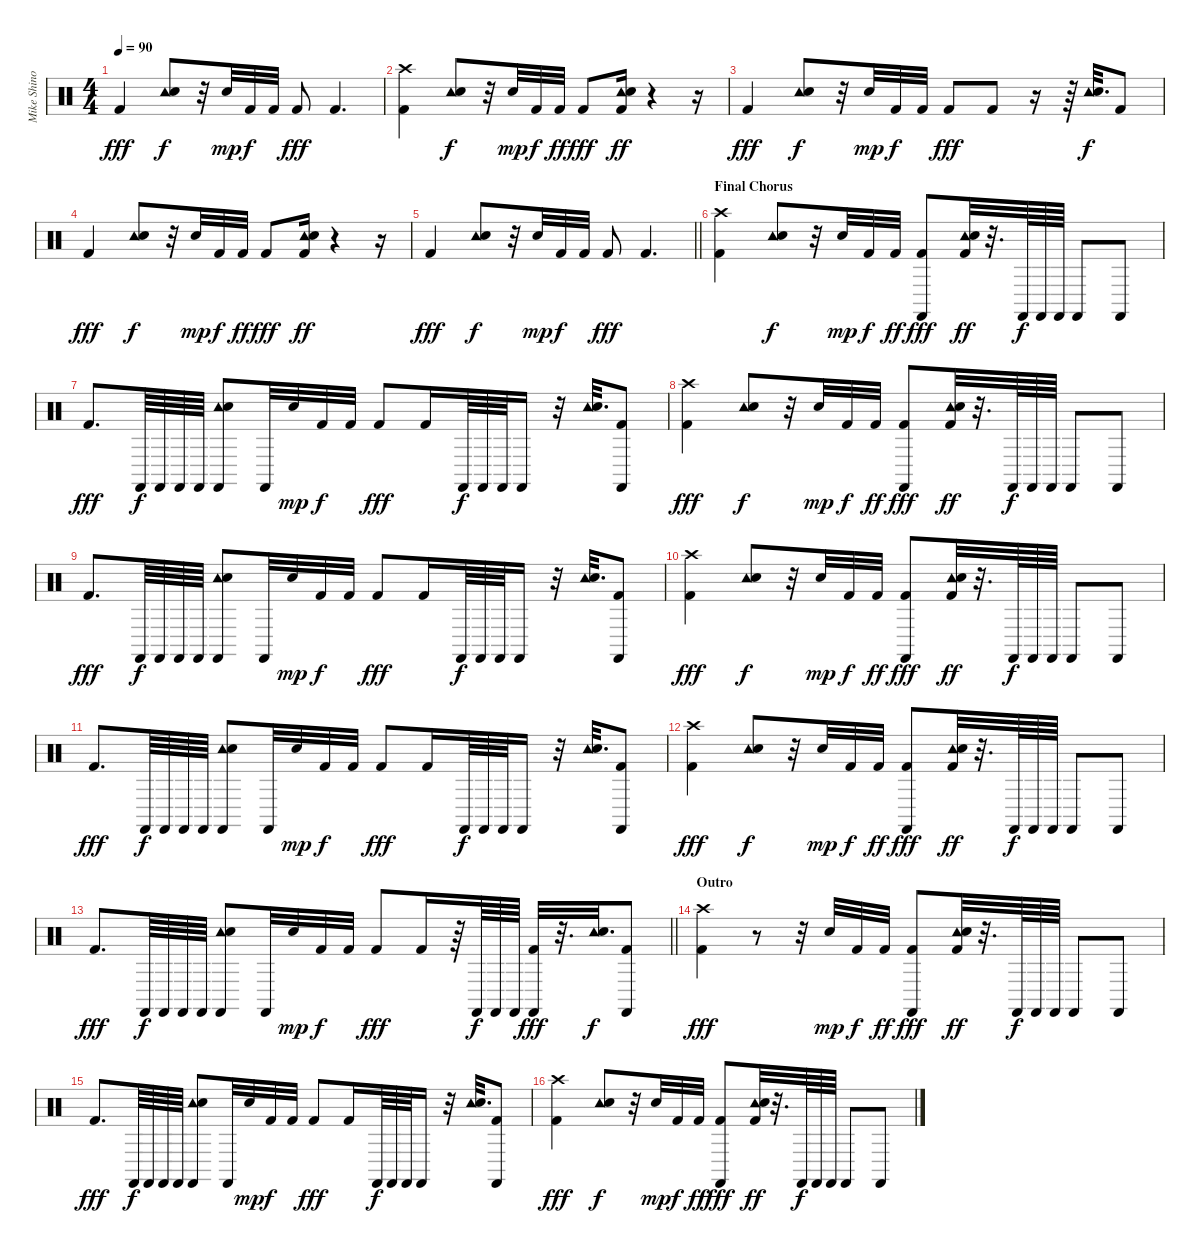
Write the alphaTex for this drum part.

\track ("Mike Shinoda - Percussion" "Mike Shino") {instrument percussion}
\staff {score}
\articulation defaults
\ts (4 4)
\tempo 90
\clef neutral
\ks c "Kick (hit) 2".4{dy fff}
("Tambourine (hit)" "Electric Snare (hit)").8{dy f} r.32 "Snare (hit) 2".32{dy mp} "Kick (hit) 2".32{dy f} "Kick (hit) 2".32 "Kick (hit) 2".8{dy fff} "Kick (hit) 2".4{d} |
("Crash high (hit)" "Kick (hit) 2").4 ("Tambourine (hit)" "Electric Snare (hit)").8{dy f} r.32 "Snare (hit) 2".32{dy mp} "Kick (hit) 2".32{dy f} "Kick (hit) 2".32{dy ff} "Kick (hit) 2".8{dy fff} ("Tambourine (hit)" "Electric Snare (hit)" "Kick (hit) 2").16{dy ff} r.4 r.16 |
"Kick (hit) 2".4{dy fff} ("Tambourine (hit)" "Electric Snare (hit)").8{dy f} r.32 "Snare (hit) 2".32{dy mp} "Kick (hit) 2".32{dy f} "Kick (hit) 2".32 "Kick (hit) 2".8{dy fff} "Kick (hit) 2".8 r.16 r.64 ("Tambourine (hit)" "Electric Snare (hit)").32{d dy f} "Kick (hit) 2".8 |
"Kick (hit) 2".4{dy fff} ("Tambourine (hit)" "Electric Snare (hit)").8{dy f} r.32 "Snare (hit) 2".32{dy mp} "Kick (hit) 2".32{dy f} "Kick (hit) 2".32{dy ff} "Kick (hit) 2".8{dy fff} ("Tambourine (hit)" "Electric Snare (hit)" "Kick (hit) 2").16{dy ff} r.4 r.16 |
\barLineRight lightlight "Kick (hit) 2".4{dy fff}
("Tambourine (hit)" "Electric Snare (hit)").8{dy f} r.32 "Snare (hit) 2".32{dy mp} "Kick (hit) 2".32{dy f} "Kick (hit) 2".32 "Kick (hit) 2".8{dy fff} "Kick (hit) 2".4{d} |
\section ("" "Final Chorus ")
("Crash high (hit)" "Kick (hit) 2").4 ("Tambourine (hit)" "Electric Snare (hit)").8{dy f} r.32 "Snare (hit) 2".32{dy mp} "Kick (hit) 2".32{dy f} "Kick (hit) 2".32{dy ff} ("Castanets (hit)" "Kick (hit) 2").8{dy fff} ("Tambourine (hit)" "Electric Snare (hit)" "Kick (hit) 2").32{dy ff} r.32{d} "Castanets (hit)".64{dy f} "Castanets (hit)".64 "Castanets (hit)".64 "Castanets (hit)".8 "Castanets (hit)".8 |
"Kick (hit) 2".8{d dy fff} "Castanets (hit)".64{dy f} "Castanets (hit)".64 "Castanets (hit)".64 "Castanets (hit)".64 ("Castanets (hit)" "Tambourine (hit)" "Electric Snare (hit)").8 "Castanets (hit)".32 "Snare (hit) 2".32{dy mp} "Kick (hit) 2".32{dy f} "Kick (hit) 2".32 "Kick (hit) 2".8{dy fff} "Kick (hit) 2".16 "Castanets (hit)".64{dy f} "Castanets (hit)".64 "Castanets (hit)".64 "Castanets (hit)".16 r.32 ("Tambourine (hit)" "Electric Snare (hit)").32{d} ("Castanets (hit)" "Kick (hit) 2").8 |
("Crash high (hit)" "Kick (hit) 2").4{dy fff} ("Tambourine (hit)" "Electric Snare (hit)").8{dy f} r.32 "Snare (hit) 2".32{dy mp} "Kick (hit) 2".32{dy f} "Kick (hit) 2".32{dy ff} ("Castanets (hit)" "Kick (hit) 2").8{dy fff} ("Tambourine (hit)" "Electric Snare (hit)" "Kick (hit) 2").32{dy ff} r.32{d} "Castanets (hit)".64{dy f} "Castanets (hit)".64 "Castanets (hit)".64 "Castanets (hit)".8 "Castanets (hit)".8 |
"Kick (hit) 2".8{d dy fff} "Castanets (hit)".64{dy f} "Castanets (hit)".64 "Castanets (hit)".64 "Castanets (hit)".64 ("Castanets (hit)" "Tambourine (hit)" "Electric Snare (hit)").8 "Castanets (hit)".32 "Snare (hit) 2".32{dy mp} "Kick (hit) 2".32{dy f} "Kick (hit) 2".32 "Kick (hit) 2".8{dy fff} "Kick (hit) 2".16 "Castanets (hit)".64{dy f} "Castanets (hit)".64 "Castanets (hit)".64 "Castanets (hit)".16 r.32 ("Tambourine (hit)" "Electric Snare (hit)").32{d} ("Castanets (hit)" "Kick (hit) 2").8 |
("Crash high (hit)" "Kick (hit) 2").4{dy fff} ("Tambourine (hit)" "Electric Snare (hit)").8{dy f} r.32 "Snare (hit) 2".32{dy mp} "Kick (hit) 2".32{dy f} "Kick (hit) 2".32{dy ff} ("Castanets (hit)" "Kick (hit) 2").8{dy fff} ("Tambourine (hit)" "Electric Snare (hit)" "Kick (hit) 2").32{dy ff} r.32{d} "Castanets (hit)".64{dy f} "Castanets (hit)".64 "Castanets (hit)".64 "Castanets (hit)".8 "Castanets (hit)".8 |
"Kick (hit) 2".8{d dy fff} "Castanets (hit)".64{dy f} "Castanets (hit)".64 "Castanets (hit)".64 "Castanets (hit)".64 ("Castanets (hit)" "Tambourine (hit)" "Electric Snare (hit)").8 "Castanets (hit)".32 "Snare (hit) 2".32{dy mp} "Kick (hit) 2".32{dy f} "Kick (hit) 2".32 "Kick (hit) 2".8{dy fff} "Kick (hit) 2".16 "Castanets (hit)".64{dy f} "Castanets (hit)".64 "Castanets (hit)".64 "Castanets (hit)".16 r.32 ("Tambourine (hit)" "Electric Snare (hit)").32{d} ("Castanets (hit)" "Kick (hit) 2").8 |
("Crash high (hit)" "Kick (hit) 2").4{dy fff} ("Tambourine (hit)" "Electric Snare (hit)").8{dy f} r.32 "Snare (hit) 2".32{dy mp} "Kick (hit) 2".32{dy f} "Kick (hit) 2".32{dy ff} ("Castanets (hit)" "Kick (hit) 2").8{dy fff} ("Tambourine (hit)" "Electric Snare (hit)" "Kick (hit) 2").32{dy ff} r.32{d} "Castanets (hit)".64{dy f} "Castanets (hit)".64 "Castanets (hit)".64 "Castanets (hit)".8 "Castanets (hit)".8 |
\barLineRight lightlight "Kick (hit) 2".8{d dy fff} "Castanets (hit)".64{dy f} "Castanets (hit)".64 "Castanets (hit)".64 "Castanets (hit)".64
("Castanets (hit)" "Tambourine (hit)" "Electric Snare (hit)").8 "Castanets (hit)".32 "Snare (hit) 2".32{dy mp} "Kick (hit) 2".32{dy f} "Kick (hit) 2".32 "Kick (hit) 2".8{dy fff} "Kick (hit) 2".16 r.64 "Castanets (hit)".64{dy f} "Castanets (hit)".64 "Castanets (hit)".64 ("Castanets (hit)" "Kick (hit) 2").32{dy fff} r.32{d} ("Tambourine (hit)" "Electric Snare (hit)").32{d dy f} ("Castanets (hit)" "Kick (hit) 2").8 |
\section ("" "Outro")
("Crash high (hit)" "Kick (hit) 2").4{dy fff} r.8 r.32 "Snare (hit) 2".32{dy mp} "Kick (hit) 2".32{dy f} "Kick (hit) 2".32{dy ff} ("Castanets (hit)" "Kick (hit) 2").8{dy fff} ("Tambourine (hit)" "Electric Snare (hit)" "Kick (hit) 2").32{dy ff} r.32{d} "Castanets (hit)".64{dy f} "Castanets (hit)".64 "Castanets (hit)".64 "Castanets (hit)".8 "Castanets (hit)".8 |
"Kick (hit) 2".8{d dy fff} "Castanets (hit)".64{dy f} "Castanets (hit)".64 "Castanets (hit)".64 "Castanets (hit)".64 ("Castanets (hit)" "Tambourine (hit)" "Electric Snare (hit)").8 "Castanets (hit)".32 "Snare (hit) 2".32{dy mp} "Kick (hit) 2".32{dy f} "Kick (hit) 2".32 "Kick (hit) 2".8{dy fff} "Kick (hit) 2".16 "Castanets (hit)".64{dy f} "Castanets (hit)".64 "Castanets (hit)".64 "Castanets (hit)".16 r.32 ("Tambourine (hit)" "Electric Snare (hit)").32{d} ("Castanets (hit)" "Kick (hit) 2").8 |
("Crash high (hit)" "Kick (hit) 2").4{dy fff} ("Tambourine (hit)" "Electric Snare (hit)").8{dy f} r.32 "Snare (hit) 2".32{dy mp} "Kick (hit) 2".32{dy f} "Kick (hit) 2".32{dy ff} ("Castanets (hit)" "Kick (hit) 2").8{dy fff} ("Tambourine (hit)" "Electric Snare (hit)" "Kick (hit) 2").32{dy ff} r.32{d} "Castanets (hit)".64{dy f} "Castanets (hit)".64 "Castanets (hit)".64 "Castanets (hit)".8 "Castanets (hit)".8
